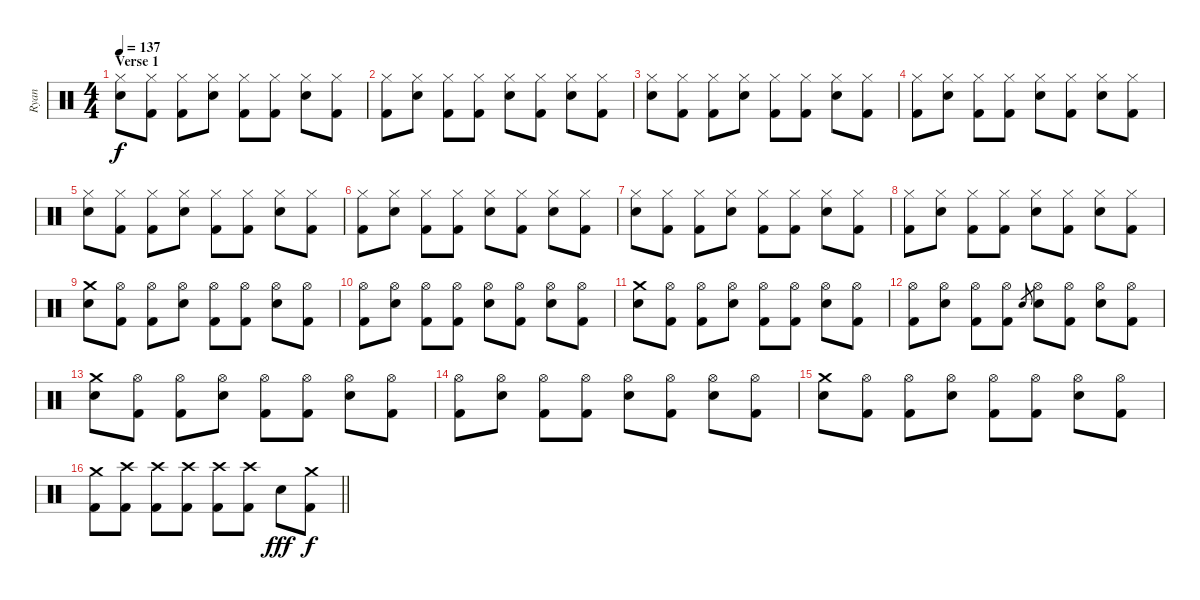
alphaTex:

\track ("Ryan" "Ryan") {instrument percussion}
\staff {score}
\articulation defaults
\ts (4 4)
\section ("" "Verse 1")
\tempo 137
\clef neutral
\ks c
("Hi-Hat (closed)" "Electric Snare (hit)").8{dy f} ("Hi-Hat (closed)" "Kick (hit) 2").8 ("Hi-Hat (closed)" "Kick (hit) 2").8 ("Hi-Hat (closed)" "Electric Snare (hit)").8 ("Hi-Hat (closed)" "Kick (hit) 2").8 ("Hi-Hat (closed)" "Kick (hit) 2").8 ("Hi-Hat (closed)" "Electric Snare (hit)").8 ("Hi-Hat (closed)" "Kick (hit) 2").8 |
("Hi-Hat (closed)" "Kick (hit) 2").8 ("Hi-Hat (closed)" "Electric Snare (hit)").8 ("Hi-Hat (closed)" "Kick (hit) 2").8 ("Hi-Hat (closed)" "Kick (hit) 2").8 ("Hi-Hat (closed)" "Electric Snare (hit)").8 ("Hi-Hat (closed)" "Kick (hit) 2").8 ("Hi-Hat (closed)" "Electric Snare (hit)").8 ("Hi-Hat (closed)" "Kick (hit) 2").8 |
("Hi-Hat (closed)" "Electric Snare (hit)").8 ("Hi-Hat (closed)" "Kick (hit) 2").8 ("Hi-Hat (closed)" "Kick (hit) 2").8 ("Hi-Hat (closed)" "Electric Snare (hit)").8 ("Hi-Hat (closed)" "Kick (hit) 2").8 ("Hi-Hat (closed)" "Kick (hit) 2").8 ("Hi-Hat (closed)" "Electric Snare (hit)").8 ("Hi-Hat (closed)" "Kick (hit) 2").8 |
("Hi-Hat (closed)" "Kick (hit) 2").8 ("Hi-Hat (closed)" "Electric Snare (hit)").8 ("Hi-Hat (closed)" "Kick (hit) 2").8 ("Hi-Hat (closed)" "Kick (hit) 2").8 ("Hi-Hat (closed)" "Electric Snare (hit)").8 ("Hi-Hat (closed)" "Kick (hit) 2").8 ("Hi-Hat (closed)" "Electric Snare (hit)").8 ("Hi-Hat (closed)" "Kick (hit) 2").8 |
("Hi-Hat (closed)" "Electric Snare (hit)").8 ("Hi-Hat (closed)" "Kick (hit) 2").8 ("Hi-Hat (closed)" "Kick (hit) 2").8 ("Hi-Hat (closed)" "Electric Snare (hit)").8 ("Hi-Hat (closed)" "Kick (hit) 2").8 ("Hi-Hat (closed)" "Kick (hit) 2").8 ("Hi-Hat (closed)" "Electric Snare (hit)").8 ("Hi-Hat (closed)" "Kick (hit) 2").8 |
("Hi-Hat (closed)" "Kick (hit) 2").8 ("Hi-Hat (closed)" "Electric Snare (hit)").8 ("Hi-Hat (closed)" "Kick (hit) 2").8 ("Hi-Hat (closed)" "Kick (hit) 2").8 ("Hi-Hat (closed)" "Electric Snare (hit)").8 ("Hi-Hat (closed)" "Kick (hit) 2").8 ("Hi-Hat (closed)" "Electric Snare (hit)").8 ("Hi-Hat (closed)" "Kick (hit) 2").8 |
("Hi-Hat (closed)" "Electric Snare (hit)").8 ("Hi-Hat (closed)" "Kick (hit) 2").8 ("Hi-Hat (closed)" "Kick (hit) 2").8 ("Hi-Hat (closed)" "Electric Snare (hit)").8 ("Hi-Hat (closed)" "Kick (hit) 2").8 ("Hi-Hat (closed)" "Kick (hit) 2").8 ("Hi-Hat (closed)" "Electric Snare (hit)").8 ("Hi-Hat (closed)" "Kick (hit) 2").8 |
("Hi-Hat (closed)" "Kick (hit) 2").8 ("Hi-Hat (closed)" "Electric Snare (hit)").8 ("Hi-Hat (closed)" "Kick (hit) 2").8 ("Hi-Hat (closed)" "Kick (hit) 2").8 ("Hi-Hat (closed)" "Electric Snare (hit)").8 ("Hi-Hat (closed)" "Kick (hit) 2").8 ("Hi-Hat (closed)" "Electric Snare (hit)").8 ("Hi-Hat (closed)" "Kick (hit) 2").8 |
("Crash medium (hit)" "Electric Snare (hit)").8 ("Hi-Hat (open)" "Kick (hit) 2").8 ("Hi-Hat (open)" "Kick (hit) 2").8 ("Hi-Hat (open)" "Electric Snare (hit)").8 ("Hi-Hat (open)" "Kick (hit) 2").8 ("Hi-Hat (open)" "Kick (hit) 2").8 ("Hi-Hat (open)" "Electric Snare (hit)").8 ("Hi-Hat (open)" "Kick (hit) 2").8 |
("Hi-Hat (open)" "Kick (hit) 2").8 ("Hi-Hat (open)" "Electric Snare (hit)").8 ("Hi-Hat (open)" "Kick (hit) 2").8 ("Hi-Hat (open)" "Kick (hit) 2").8 ("Hi-Hat (open)" "Electric Snare (hit)").8 ("Hi-Hat (open)" "Kick (hit) 2").8 ("Hi-Hat (open)" "Electric Snare (hit)").8 ("Hi-Hat (open)" "Kick (hit) 2").8 |
("Crash medium (hit)" "Electric Snare (hit)").8 ("Hi-Hat (open)" "Kick (hit) 2").8 ("Hi-Hat (open)" "Kick (hit) 2").8 ("Hi-Hat (open)" "Electric Snare (hit)").8 ("Hi-Hat (open)" "Kick (hit) 2").8 ("Hi-Hat (open)" "Kick (hit) 2").8 ("Hi-Hat (open)" "Electric Snare (hit)").8 ("Hi-Hat (open)" "Kick (hit) 2").8 |
("Hi-Hat (open)" "Kick (hit) 2").8 ("Hi-Hat (open)" "Electric Snare (hit)").8 ("Hi-Hat (open)" "Kick (hit) 2").8 ("Hi-Hat (open)" "Kick (hit) 2").8 "Electric Snare (hit)".8{gr} ("Hi-Hat (open)" "Electric Snare (hit)").8 ("Hi-Hat (open)" "Kick (hit) 2").8 ("Hi-Hat (open)" "Electric Snare (hit)").8 ("Hi-Hat (open)" "Kick (hit) 2").8 |
("Crash medium (hit)" "Electric Snare (hit)").8 ("Hi-Hat (open)" "Kick (hit) 2").8 ("Hi-Hat (open)" "Kick (hit) 2").8 ("Hi-Hat (open)" "Electric Snare (hit)").8 ("Hi-Hat (open)" "Kick (hit) 2").8 ("Hi-Hat (open)" "Kick (hit) 2").8 ("Hi-Hat (open)" "Electric Snare (hit)").8 ("Hi-Hat (open)" "Kick (hit) 2").8 |
("Hi-Hat (open)" "Kick (hit) 2").8 ("Hi-Hat (open)" "Electric Snare (hit)").8 ("Hi-Hat (open)" "Kick (hit) 2").8 ("Hi-Hat (open)" "Kick (hit) 2").8 ("Hi-Hat (open)" "Electric Snare (hit)").8 ("Hi-Hat (open)" "Kick (hit) 2").8 ("Hi-Hat (open)" "Electric Snare (hit)").8 ("Hi-Hat (open)" "Kick (hit) 2").8 |
("Crash medium (hit)" "Electric Snare (hit)").8 ("Hi-Hat (open)" "Kick (hit) 2").8 ("Hi-Hat (open)" "Kick (hit) 2").8 ("Hi-Hat (open)" "Electric Snare (hit)").8 ("Hi-Hat (open)" "Kick (hit) 2").8 ("Hi-Hat (open)" "Kick (hit) 2").8 ("Hi-Hat (open)" "Electric Snare (hit)").8 ("Hi-Hat (open)" "Kick (hit) 2").8 |
\barLineRight lightlight
("Crash medium (hit)" "Kick (hit) 2").8 ("Crash high (hit)" "Kick (hit) 2").8 ("Crash high (hit)" "Kick (hit) 2").8 ("Crash high (hit)" "Kick (hit) 2").8 ("Crash high (hit)" "Kick (hit) 2").8 ("Crash high (hit)" "Kick (hit) 2").8 "Electric Snare (hit)".8{dy fff} ("Crash medium (hit)" "Kick (hit) 2").8{dy f}
